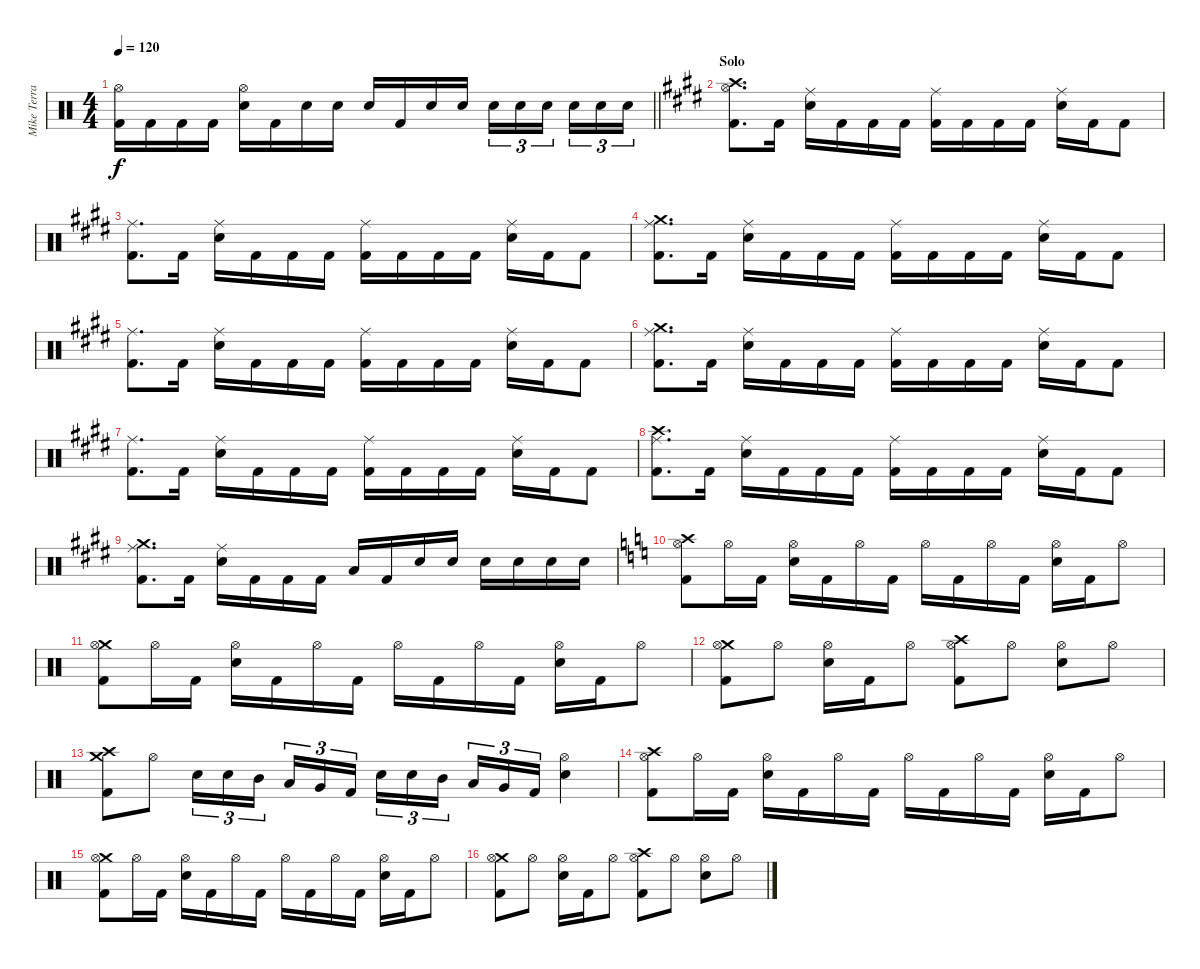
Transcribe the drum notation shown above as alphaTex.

\track ("Mike Terrana" "Mike Terra") {instrument percussion}
\staff {score}
\articulation defaults
\ts (4 4)
\tempo 120
\clef neutral
\barLineRight lightlight
\ks c
("Hi-Hat (open)" "Kick (hit) 2").16{dy f} "Kick (hit) 2".16 "Kick (hit) 2".16 "Kick (hit) 2".16 ("Hi-Hat (open)" "Snare (hit) 2").16 "Kick (hit) 2".16 "Snare (hit) 2".16 "Snare (hit) 2".16 "Snare (hit) 2".16 "Kick (hit) 2".16 "Snare (hit) 2".16 "Snare (hit) 2".16 "Snare (hit) 2".16{tu (3 2)} "Snare (hit) 2".16{tu (3 2)} "Snare (hit) 2".16{tu (3 2) beam splitsecondary} "Snare (hit) 2".16{tu (3 2)} "Snare (hit) 2".16{tu (3 2)} "Snare (hit) 2".16{tu (3 2)} |
\section ("" "Solo")
\ks c#minor
("Crash high (hit)" "Hi-Hat (open)" "Kick (hit) 2").8{d} "Kick (hit) 2".16 ("Ride (middle)" "Snare (hit) 2").16 "Kick (hit) 2".16 "Kick (hit) 2".16 "Kick (hit) 2".16 ("Ride (middle)" "Kick (hit) 2").16 "Kick (hit) 2".16 "Kick (hit) 2".16 "Kick (hit) 2".16 ("Ride (middle)" "Snare (hit) 2").16 "Kick (hit) 2".16 "Kick (hit) 2".8 |
("Ride (middle)" "Kick (hit) 2").8{d} "Kick (hit) 2".16 ("Ride (middle)" "Snare (hit) 2").16 "Kick (hit) 2".16 "Kick (hit) 2".16 "Kick (hit) 2".16 ("Ride (middle)" "Kick (hit) 2").16 "Kick (hit) 2".16 "Kick (hit) 2".16 "Kick (hit) 2".16 ("Ride (middle)" "Snare (hit) 2").16 "Kick (hit) 2".16 "Kick (hit) 2".8 |
("Crash medium (hit)" "Ride (middle)" "Kick (hit) 2").8{d} "Kick (hit) 2".16 ("Ride (middle)" "Snare (hit) 2").16 "Kick (hit) 2".16 "Kick (hit) 2".16 "Kick (hit) 2".16 ("Ride (middle)" "Kick (hit) 2").16 "Kick (hit) 2".16 "Kick (hit) 2".16 "Kick (hit) 2".16 ("Ride (middle)" "Snare (hit) 2").16 "Kick (hit) 2".16 "Kick (hit) 2".8 |
("Ride (middle)" "Kick (hit) 2").8{d} "Kick (hit) 2".16 ("Ride (middle)" "Snare (hit) 2").16 "Kick (hit) 2".16 "Kick (hit) 2".16 "Kick (hit) 2".16 ("Ride (middle)" "Kick (hit) 2").16 "Kick (hit) 2".16 "Kick (hit) 2".16 "Kick (hit) 2".16 ("Ride (middle)" "Snare (hit) 2").16 "Kick (hit) 2".16 "Kick (hit) 2".8 |
("Crash medium (hit)" "Ride (middle)" "Kick (hit) 2").8{d} "Kick (hit) 2".16 ("Ride (middle)" "Snare (hit) 2").16 "Kick (hit) 2".16 "Kick (hit) 2".16 "Kick (hit) 2".16 ("Ride (middle)" "Kick (hit) 2").16 "Kick (hit) 2".16 "Kick (hit) 2".16 "Kick (hit) 2".16 ("Ride (middle)" "Snare (hit) 2").16 "Kick (hit) 2".16 "Kick (hit) 2".8 |
("Ride (middle)" "Kick (hit) 2").8{d} "Kick (hit) 2".16 ("Ride (middle)" "Snare (hit) 2").16 "Kick (hit) 2".16 "Kick (hit) 2".16 "Kick (hit) 2".16 ("Ride (middle)" "Kick (hit) 2").16 "Kick (hit) 2".16 "Kick (hit) 2".16 "Kick (hit) 2".16 ("Ride (middle)" "Snare (hit) 2").16 "Kick (hit) 2".16 "Kick (hit) 2".8 |
("Crash high (hit)" "Ride (middle)" "Kick (hit) 2").8{d} "Kick (hit) 2".16 ("Ride (middle)" "Snare (hit) 2").16 "Kick (hit) 2".16 "Kick (hit) 2".16 "Kick (hit) 2".16 ("Ride (middle)" "Kick (hit) 2").16 "Kick (hit) 2".16 "Kick (hit) 2".16 "Kick (hit) 2".16 ("Ride (middle)" "Snare (hit) 2").16 "Kick (hit) 2".16 "Kick (hit) 2".8 |
("Crash medium (hit)" "Ride (middle)" "Kick (hit) 2").8{d} "Kick (hit) 2".16 ("Ride (middle)" "Snare (hit) 2").16 "Kick (hit) 2".16 "Kick (hit) 2".16 "Kick (hit) 2".16 "Low Tom (hit)".16 "Kick (hit) 2".16 "Snare (hit) 2".16 "Snare (hit) 2".16 "Snare (hit) 2".16 "Snare (hit) 2".16 "Snare (hit) 2".16 "Snare (hit) 2".16 |
\ks c
("Crash high (hit)" "Hi-Hat (open)" "Kick (hit) 2").8 "Hi-Hat (open)".16 "Kick (hit) 2".16 ("Hi-Hat (open)" "Snare (hit) 2").16 "Kick (hit) 2".16 "Hi-Hat (open)".16 "Kick (hit) 2".16 "Hi-Hat (open)".16 "Kick (hit) 2".16 "Hi-Hat (open)".16 "Kick (hit) 2".16 ("Hi-Hat (open)" "Snare (hit) 2").16 "Kick (hit) 2".16 "Hi-Hat (open)".8 |
("Crash medium (hit)" "Hi-Hat (open)" "Kick (hit) 2").8 "Hi-Hat (open)".16 "Kick (hit) 2".16 ("Hi-Hat (open)" "Snare (hit) 2").16 "Kick (hit) 2".16 "Hi-Hat (open)".16 "Kick (hit) 2".16 "Hi-Hat (open)".16 "Kick (hit) 2".16 "Hi-Hat (open)".16 "Kick (hit) 2".16 ("Hi-Hat (open)" "Snare (hit) 2").16 "Kick (hit) 2".16 "Hi-Hat (open)".8 |
("Crash medium (hit)" "Hi-Hat (open)" "Kick (hit) 2").8 "Hi-Hat (open)".8 ("Hi-Hat (open)" "Snare (hit) 2").16 "Kick (hit) 2".16 "Hi-Hat (open)".8 ("Crash high (hit)" "Hi-Hat (open)" "Kick (hit) 2").8 "Hi-Hat (open)".8 ("Hi-Hat (open)" "Snare (hit) 2").8 "Hi-Hat (open)".8 |
("Crash high (hit)" "Crash medium (hit)" "Kick (hit) 2").8 "Hi-Hat (open)".8 "Snare (hit) 2".16{tu (3 2)} "Snare (hit) 2".16{tu (3 2)} "Mid Tom (hit)".16{tu (3 2) beam splitsecondary} "Low Tom (hit)".16{tu (3 2)} "Very Low Tom (hit)".16{tu (3 2)} "Kick (hit) 2".16{tu (3 2)} "Snare (hit) 2".16{tu (3 2)} "Snare (hit) 2".16{tu (3 2)} "Mid Tom (hit)".16{tu (3 2) beam splitsecondary} "Low Tom (hit)".16{tu (3 2)} "Very Low Tom (hit)".16{tu (3 2)} "Kick (hit) 2".16{tu (3 2)} ("Hi-Hat (open)" "Snare (hit) 2").4 |
("Crash high (hit)" "Hi-Hat (open)" "Kick (hit) 2").8 "Hi-Hat (open)".16 "Kick (hit) 2".16 ("Hi-Hat (open)" "Snare (hit) 2").16 "Kick (hit) 2".16 "Hi-Hat (open)".16 "Kick (hit) 2".16 "Hi-Hat (open)".16 "Kick (hit) 2".16 "Hi-Hat (open)".16 "Kick (hit) 2".16 ("Hi-Hat (open)" "Snare (hit) 2").16 "Kick (hit) 2".16 "Hi-Hat (open)".8 |
("Crash medium (hit)" "Hi-Hat (open)" "Kick (hit) 2").8 "Hi-Hat (open)".16 "Kick (hit) 2".16 ("Hi-Hat (open)" "Snare (hit) 2").16 "Kick (hit) 2".16 "Hi-Hat (open)".16 "Kick (hit) 2".16 "Hi-Hat (open)".16 "Kick (hit) 2".16 "Hi-Hat (open)".16 "Kick (hit) 2".16 ("Hi-Hat (open)" "Snare (hit) 2").16 "Kick (hit) 2".16 "Hi-Hat (open)".8 |
("Crash medium (hit)" "Hi-Hat (open)" "Kick (hit) 2").8 "Hi-Hat (open)".8 ("Hi-Hat (open)" "Snare (hit) 2").16 "Kick (hit) 2".16 "Hi-Hat (open)".8 ("Crash high (hit)" "Hi-Hat (open)" "Kick (hit) 2").8 "Hi-Hat (open)".8 ("Hi-Hat (open)" "Snare (hit) 2").8 "Hi-Hat (open)".8
